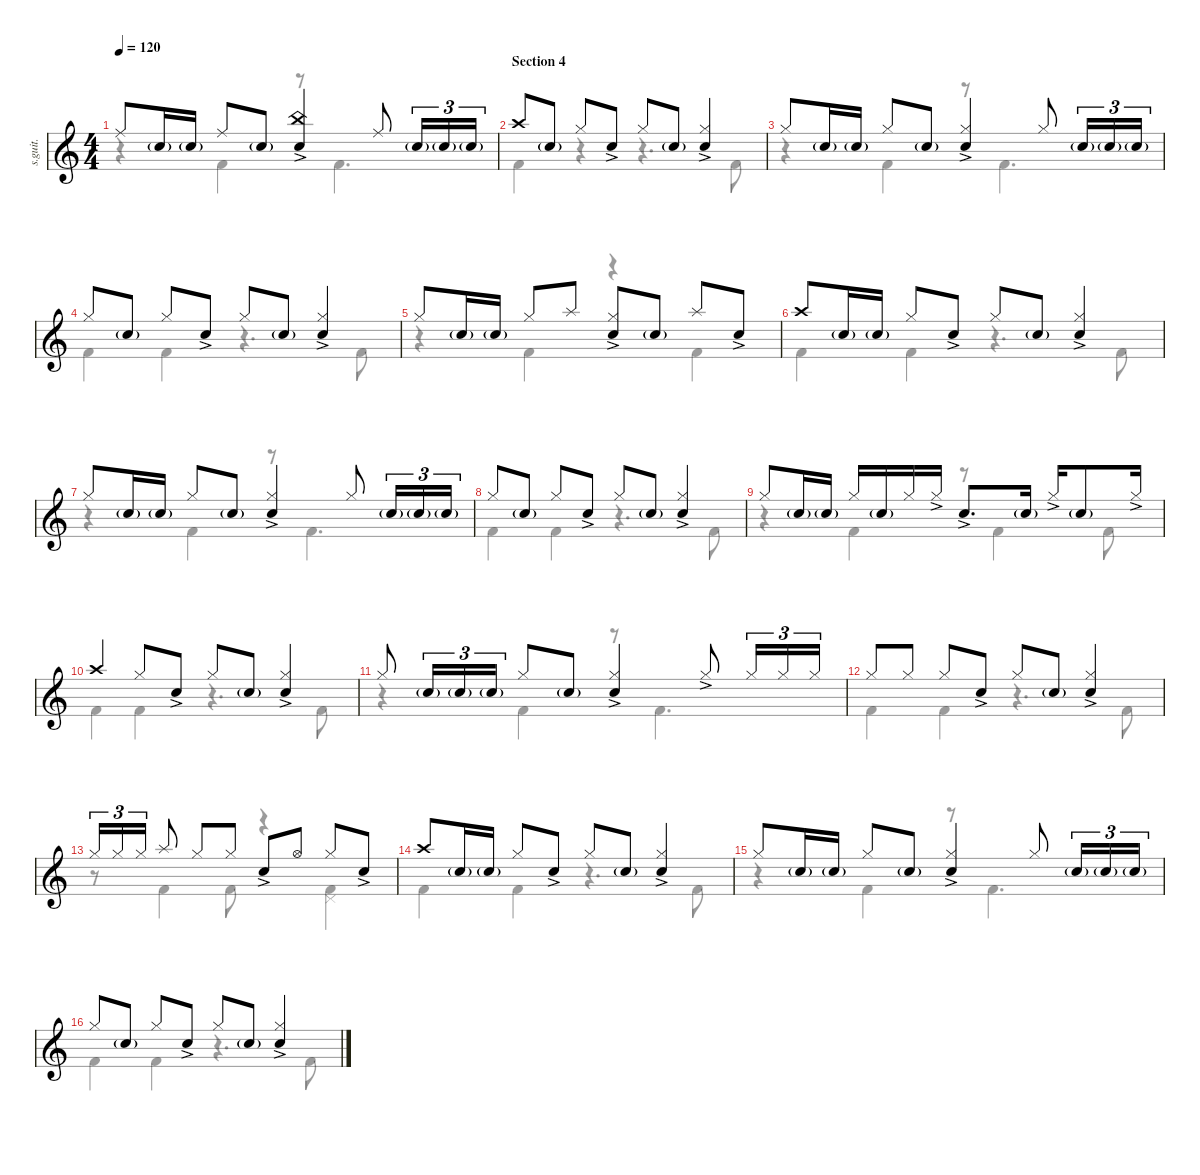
\defaultSystemsLayout 4
\hideDynamics
\bracketExtendMode nobrackets
\track ("Matt Halpern" "s.guit.") {instrument percussion}
\staff {score}
\articulation defaults
\voice
\ts (4 4)
\tempo 120
\clef g2
\ks c "Ride (middle)".8{lyrics (0 "") lyrics (1 "") lyrics (2 "") lyrics (3 "") lyrics (4 "") dy mf} "Snare (hit) 2"{g}.16{lyrics (0 "") lyrics (1 "") lyrics (2 "") lyrics (3 "") lyrics (4 "")} "Snare (hit) 2"{g}.16{lyrics (0 "") lyrics (1 "") lyrics (2 "") lyrics (3 "") lyrics (4 "")} "Ride (middle)".8{lyrics (0 "") lyrics (1 "") lyrics (2 "") lyrics (3 "") lyrics (4 "")} "Snare (hit) 2"{g}.8{lyrics (0 "") lyrics (1 "") lyrics (2 "") lyrics (3 "") lyrics (4 "")}
("Snare (hit) 2"{ac} "China (hit)").4{lyrics (0 "") lyrics (1 "") lyrics (2 "") lyrics (3 "") lyrics (4 "")} "Ride (middle)".8{lyrics (0 "") lyrics (1 "") lyrics (2 "") lyrics (3 "") lyrics (4 "")} "Snare (hit) 2"{g}.16{tu (3 2) lyrics (0 "") lyrics (1 "") lyrics (2 "") lyrics (3 "") lyrics (4 "")} "Snare (hit) 2"{g}.16{tu (3 2) lyrics (0 "") lyrics (1 "") lyrics (2 "") lyrics (3 "") lyrics (4 "")} "Snare (hit) 2"{g}.16{tu (3 2) lyrics (0 "") lyrics (1 "") lyrics (2 "") lyrics (3 "") lyrics (4 "")} |
\section ("" "Section 4")
"Crash high (hit)".8{lyrics (0 "") lyrics (1 "") lyrics (2 "") lyrics (3 "") lyrics (4 "")} "Snare (hit) 2"{g}.8{lyrics (0 "") lyrics (1 "") lyrics (2 "") lyrics (3 "") lyrics (4 "")} "Hi-Hat (closed)".8{lyrics (0 "") lyrics (1 "") lyrics (2 "") lyrics (3 "") lyrics (4 "")} "Snare (hit) 2"{ac}.8{lyrics (0 "") lyrics (1 "") lyrics (2 "") lyrics (3 "") lyrics (4 "")} "Hi-Hat (closed)".8{lyrics (0 "") lyrics (1 "") lyrics (2 "") lyrics (3 "") lyrics (4 "")} "Snare (hit) 2"{g}.8{lyrics (0 "") lyrics (1 "") lyrics (2 "") lyrics (3 "") lyrics (4 "")} ("Snare (hit) 2"{ac} "Hi-Hat (closed)").4{lyrics (0 "") lyrics (1 "") lyrics (2 "") lyrics (3 "") lyrics (4 "")} |
"Hi-Hat (closed)".8{lyrics (0 "") lyrics (1 "") lyrics (2 "") lyrics (3 "") lyrics (4 "")} "Snare (hit) 2"{g}.16{lyrics (0 "") lyrics (1 "") lyrics (2 "") lyrics (3 "") lyrics (4 "")} "Snare (hit) 2"{g}.16{lyrics (0 "") lyrics (1 "") lyrics (2 "") lyrics (3 "") lyrics (4 "")} "Hi-Hat (closed)".8{lyrics (0 "") lyrics (1 "") lyrics (2 "") lyrics (3 "") lyrics (4 "")} "Snare (hit) 2"{g}.8{lyrics (0 "") lyrics (1 "") lyrics (2 "") lyrics (3 "") lyrics (4 "")} ("Snare (hit) 2"{ac} "Hi-Hat (closed)").4{lyrics (0 "") lyrics (1 "") lyrics (2 "") lyrics (3 "") lyrics (4 "")} "Hi-Hat (closed)".8{lyrics (0 "") lyrics (1 "") lyrics (2 "") lyrics (3 "") lyrics (4 "")} "Snare (hit) 2"{g}.16{tu (3 2) lyrics (0 "") lyrics (1 "") lyrics (2 "") lyrics (3 "") lyrics (4 "")} "Snare (hit) 2"{g}.16{tu (3 2) lyrics (0 "") lyrics (1 "") lyrics (2 "") lyrics (3 "") lyrics (4 "")} "Snare (hit) 2"{g}.16{tu (3 2) lyrics (0 "") lyrics (1 "") lyrics (2 "") lyrics (3 "") lyrics (4 "")} |
"Hi-Hat (closed)".8{lyrics (0 "") lyrics (1 "") lyrics (2 "") lyrics (3 "") lyrics (4 "")} "Snare (hit) 2"{g}.8{lyrics (0 "") lyrics (1 "") lyrics (2 "") lyrics (3 "") lyrics (4 "")} "Hi-Hat (closed)".8{lyrics (0 "") lyrics (1 "") lyrics (2 "") lyrics (3 "") lyrics (4 "")} "Snare (hit) 2"{ac}.8{lyrics (0 "") lyrics (1 "") lyrics (2 "") lyrics (3 "") lyrics (4 "")} "Hi-Hat (closed)".8{lyrics (0 "") lyrics (1 "") lyrics (2 "") lyrics (3 "") lyrics (4 "")} "Snare (hit) 2"{g}.8{lyrics (0 "") lyrics (1 "") lyrics (2 "") lyrics (3 "") lyrics (4 "")} ("Snare (hit) 2"{ac} "Hi-Hat (closed)").4{lyrics (0 "") lyrics (1 "") lyrics (2 "") lyrics (3 "") lyrics (4 "")} |
"Hi-Hat (closed)".8{lyrics (0 "") lyrics (1 "") lyrics (2 "") lyrics (3 "") lyrics (4 "")} "Snare (hit) 2"{g}.16{lyrics (0 "") lyrics (1 "") lyrics (2 "") lyrics (3 "") lyrics (4 "")} "Snare (hit) 2"{g}.16{lyrics (0 "") lyrics (1 "") lyrics (2 "") lyrics (3 "") lyrics (4 "")} "Hi-Hat (closed)".8{lyrics (0 "") lyrics (1 "") lyrics (2 "") lyrics (3 "") lyrics (4 "")} "Splash (hit)".8{lyrics (0 "") lyrics (1 "") lyrics (2 "") lyrics (3 "") lyrics (4 "")} ("Snare (hit) 2"{ac} "Hi-Hat (closed)").8{lyrics (0 "") lyrics (1 "") lyrics (2 "") lyrics (3 "") lyrics (4 "")} "Snare (hit) 2"{g}.8{lyrics (0 "") lyrics (1 "") lyrics (2 "") lyrics (3 "") lyrics (4 "")} "Splash (hit)".8{lyrics (0 "") lyrics (1 "") lyrics (2 "") lyrics (3 "") lyrics (4 "")} "Snare (hit) 2"{ac}.8{lyrics (0 "") lyrics (1 "") lyrics (2 "") lyrics (3 "") lyrics (4 "")} |
"Crash high (hit)".8{lyrics (0 "") lyrics (1 "") lyrics (2 "") lyrics (3 "") lyrics (4 "")} "Snare (hit) 2"{g}.16{lyrics (0 "") lyrics (1 "") lyrics (2 "") lyrics (3 "") lyrics (4 "")} "Snare (hit) 2"{g}.16{lyrics (0 "") lyrics (1 "") lyrics (2 "") lyrics (3 "") lyrics (4 "")} "Hi-Hat (closed)".8{lyrics (0 "") lyrics (1 "") lyrics (2 "") lyrics (3 "") lyrics (4 "")} "Snare (hit) 2"{ac}.8{lyrics (0 "") lyrics (1 "") lyrics (2 "") lyrics (3 "") lyrics (4 "")} "Hi-Hat (closed)".8{lyrics (0 "") lyrics (1 "") lyrics (2 "") lyrics (3 "") lyrics (4 "")} "Snare (hit) 2"{g}.8{lyrics (0 "") lyrics (1 "") lyrics (2 "") lyrics (3 "") lyrics (4 "")} ("Snare (hit) 2"{ac} "Hi-Hat (closed)").4{lyrics (0 "") lyrics (1 "") lyrics (2 "") lyrics (3 "") lyrics (4 "")} |
"Hi-Hat (closed)".8{lyrics (0 "") lyrics (1 "") lyrics (2 "") lyrics (3 "") lyrics (4 "")} "Snare (hit) 2"{g}.16{lyrics (0 "") lyrics (1 "") lyrics (2 "") lyrics (3 "") lyrics (4 "")} "Snare (hit) 2"{g}.16{lyrics (0 "") lyrics (1 "") lyrics (2 "") lyrics (3 "") lyrics (4 "")} "Hi-Hat (closed)".8{lyrics (0 "") lyrics (1 "") lyrics (2 "") lyrics (3 "") lyrics (4 "")} "Snare (hit) 2"{g}.8{lyrics (0 "") lyrics (1 "") lyrics (2 "") lyrics (3 "") lyrics (4 "")} ("Snare (hit) 2"{ac} "Hi-Hat (closed)").4{lyrics (0 "") lyrics (1 "") lyrics (2 "") lyrics (3 "") lyrics (4 "")} "Hi-Hat (closed)".8{lyrics (0 "") lyrics (1 "") lyrics (2 "") lyrics (3 "") lyrics (4 "")} "Snare (hit) 2"{g}.16{tu (3 2) lyrics (0 "") lyrics (1 "") lyrics (2 "") lyrics (3 "") lyrics (4 "")} "Snare (hit) 2"{g}.16{tu (3 2) lyrics (0 "") lyrics (1 "") lyrics (2 "") lyrics (3 "") lyrics (4 "")} "Snare (hit) 2"{g}.16{tu (3 2) lyrics (0 "") lyrics (1 "") lyrics (2 "") lyrics (3 "") lyrics (4 "")} |
"Hi-Hat (closed)".8{lyrics (0 "") lyrics (1 "") lyrics (2 "") lyrics (3 "") lyrics (4 "")} "Snare (hit) 2"{g}.8{lyrics (0 "") lyrics (1 "") lyrics (2 "") lyrics (3 "") lyrics (4 "")} "Hi-Hat (closed)".8{lyrics (0 "") lyrics (1 "") lyrics (2 "") lyrics (3 "") lyrics (4 "")} "Snare (hit) 2"{ac}.8{lyrics (0 "") lyrics (1 "") lyrics (2 "") lyrics (3 "") lyrics (4 "")} "Hi-Hat (closed)".8{lyrics (0 "") lyrics (1 "") lyrics (2 "") lyrics (3 "") lyrics (4 "")} "Snare (hit) 2"{g}.8{lyrics (0 "") lyrics (1 "") lyrics (2 "") lyrics (3 "") lyrics (4 "")} ("Snare (hit) 2"{ac} "Hi-Hat (closed)").4{lyrics (0 "") lyrics (1 "") lyrics (2 "") lyrics (3 "") lyrics (4 "")} |
"Hi-Hat (closed)".8{lyrics (0 "") lyrics (1 "") lyrics (2 "") lyrics (3 "") lyrics (4 "")} "Snare (hit) 2"{g}.16{lyrics (0 "") lyrics (1 "") lyrics (2 "") lyrics (3 "") lyrics (4 "")} "Snare (hit) 2"{g}.16{lyrics (0 "") lyrics (1 "") lyrics (2 "") lyrics (3 "") lyrics (4 "")} "Hi-Hat (closed)".16{lyrics (0 "") lyrics (1 "") lyrics (2 "") lyrics (3 "") lyrics (4 "")} "Snare (hit) 2"{g}.16{lyrics (0 "") lyrics (1 "") lyrics (2 "") lyrics (3 "") lyrics (4 "")} "Hi-Hat (closed)".16{lyrics (0 "") lyrics (1 "") lyrics (2 "") lyrics (3 "") lyrics (4 "")} "Hi-Hat (closed)"{ac}.16{lyrics (0 "") lyrics (1 "") lyrics (2 "") lyrics (3 "") lyrics (4 "")} "Snare (hit) 2"{ac}.8{d lyrics (0 "") lyrics (1 "") lyrics (2 "") lyrics (3 "") lyrics (4 "")} "Snare (hit) 2"{g}.16{lyrics (0 "") lyrics (1 "") lyrics (2 "") lyrics (3 "") lyrics (4 "")} "Hi-Hat (closed)"{ac}.16{lyrics (0 "") lyrics (1 "") lyrics (2 "") lyrics (3 "") lyrics (4 "")} "Snare (hit) 2"{g}.8{lyrics (0 "") lyrics (1 "") lyrics (2 "") lyrics (3 "") lyrics (4 "")} "Hi-Hat (closed)"{ac}.16{lyrics (0 "") lyrics (1 "") lyrics (2 "") lyrics (3 "") lyrics (4 "")} |
"Crash high (hit)".4{lyrics (0 "") lyrics (1 "") lyrics (2 "") lyrics (3 "") lyrics (4 "")} "Hi-Hat (closed)".8{lyrics (0 "") lyrics (1 "") lyrics (2 "") lyrics (3 "") lyrics (4 "")} "Snare (hit) 2"{ac}.8{lyrics (0 "") lyrics (1 "") lyrics (2 "") lyrics (3 "") lyrics (4 "")} "Hi-Hat (closed)".8{lyrics (0 "") lyrics (1 "") lyrics (2 "") lyrics (3 "") lyrics (4 "")} "Snare (hit) 2"{g}.8{lyrics (0 "") lyrics (1 "") lyrics (2 "") lyrics (3 "") lyrics (4 "")} ("Snare (hit) 2"{ac} "Hi-Hat (closed)").4{lyrics (0 "") lyrics (1 "") lyrics (2 "") lyrics (3 "") lyrics (4 "")} |
"Hi-Hat (closed)".8{lyrics (0 "") lyrics (1 "") lyrics (2 "") lyrics (3 "") lyrics (4 "")} "Snare (hit) 2"{g}.16{tu (3 2) lyrics (0 "") lyrics (1 "") lyrics (2 "") lyrics (3 "") lyrics (4 "")} "Snare (hit) 2"{g}.16{tu (3 2) lyrics (0 "") lyrics (1 "") lyrics (2 "") lyrics (3 "") lyrics (4 "")} "Snare (hit) 2"{g}.16{tu (3 2) lyrics (0 "") lyrics (1 "") lyrics (2 "") lyrics (3 "") lyrics (4 "")} "Hi-Hat (closed)".8{lyrics (0 "") lyrics (1 "") lyrics (2 "") lyrics (3 "") lyrics (4 "")} "Snare (hit) 2"{g}.8{lyrics (0 "") lyrics (1 "") lyrics (2 "") lyrics (3 "") lyrics (4 "")} ("Snare (hit) 2"{ac} "Hi-Hat (closed)").4{lyrics (0 "") lyrics (1 "") lyrics (2 "") lyrics (3 "") lyrics (4 "")} "Hi-Hat (closed)"{ac}.8{lyrics (0 "") lyrics (1 "") lyrics (2 "") lyrics (3 "") lyrics (4 "")} "Hi-Hat (closed)".16{tu (3 2) lyrics (0 "") lyrics (1 "") lyrics (2 "") lyrics (3 "") lyrics (4 "")} "Hi-Hat (closed)".16{tu (3 2) lyrics (0 "") lyrics (1 "") lyrics (2 "") lyrics (3 "") lyrics (4 "")} "Hi-Hat (closed)".16{tu (3 2) lyrics (0 "") lyrics (1 "") lyrics (2 "") lyrics (3 "") lyrics (4 "")} |
"Hi-Hat (closed)".8{lyrics (0 "") lyrics (1 "") lyrics (2 "") lyrics (3 "") lyrics (4 "")} "Hi-Hat (closed)".8{lyrics (0 "") lyrics (1 "") lyrics (2 "") lyrics (3 "") lyrics (4 "")} "Hi-Hat (closed)".8{lyrics (0 "") lyrics (1 "") lyrics (2 "") lyrics (3 "") lyrics (4 "")} "Snare (hit) 2"{ac}.8{lyrics (0 "") lyrics (1 "") lyrics (2 "") lyrics (3 "") lyrics (4 "")} "Hi-Hat (closed)".8{lyrics (0 "") lyrics (1 "") lyrics (2 "") lyrics (3 "") lyrics (4 "")} "Snare (hit) 2"{g}.8{lyrics (0 "") lyrics (1 "") lyrics (2 "") lyrics (3 "") lyrics (4 "")} ("Snare (hit) 2"{ac} "Hi-Hat (closed)").4{lyrics (0 "") lyrics (1 "") lyrics (2 "") lyrics (3 "") lyrics (4 "")} |
"Hi-Hat (closed)".16{tu (3 2) lyrics (0 "") lyrics (1 "") lyrics (2 "") lyrics (3 "") lyrics (4 "")} "Hi-Hat (closed)".16{tu (3 2) lyrics (0 "") lyrics (1 "") lyrics (2 "") lyrics (3 "") lyrics (4 "")} "Hi-Hat (closed)".16{tu (3 2) lyrics (0 "") lyrics (1 "") lyrics (2 "") lyrics (3 "") lyrics (4 "")} "Splash (hit)".8{lyrics (0 "") lyrics (1 "") lyrics (2 "") lyrics (3 "") lyrics (4 "")} "Hi-Hat (closed)".8{lyrics (0 "") lyrics (1 "") lyrics (2 "") lyrics (3 "") lyrics (4 "")} "Hi-Hat (closed)".8{lyrics (0 "") lyrics (1 "") lyrics (2 "") lyrics (3 "") lyrics (4 "")} "Snare (hit) 2"{ac}.8{lyrics (0 "") lyrics (1 "") lyrics (2 "") lyrics (3 "") lyrics (4 "")} "Hi-Hat (open)".8{lyrics (0 "") lyrics (1 "") lyrics (2 "") lyrics (3 "") lyrics (4 "")} "Hi-Hat (closed)".8{lyrics (0 "") lyrics (1 "") lyrics (2 "") lyrics (3 "") lyrics (4 "")} "Snare (hit) 2"{ac}.8{lyrics (0 "") lyrics (1 "") lyrics (2 "") lyrics (3 "") lyrics (4 "")} |
"Crash high (hit)".8{lyrics (0 "") lyrics (1 "") lyrics (2 "") lyrics (3 "") lyrics (4 "")} "Snare (hit) 2"{g}.16{lyrics (0 "") lyrics (1 "") lyrics (2 "") lyrics (3 "") lyrics (4 "")} "Snare (hit) 2"{g}.16{lyrics (0 "") lyrics (1 "") lyrics (2 "") lyrics (3 "") lyrics (4 "")} "Hi-Hat (closed)".8{lyrics (0 "") lyrics (1 "") lyrics (2 "") lyrics (3 "") lyrics (4 "")} "Snare (hit) 2"{ac}.8{lyrics (0 "") lyrics (1 "") lyrics (2 "") lyrics (3 "") lyrics (4 "")} "Hi-Hat (closed)".8{lyrics (0 "") lyrics (1 "") lyrics (2 "") lyrics (3 "") lyrics (4 "")} "Snare (hit) 2"{g}.8{lyrics (0 "") lyrics (1 "") lyrics (2 "") lyrics (3 "") lyrics (4 "")} ("Snare (hit) 2"{ac} "Hi-Hat (closed)").4{lyrics (0 "") lyrics (1 "") lyrics (2 "") lyrics (3 "") lyrics (4 "")} |
"Hi-Hat (closed)".8{lyrics (0 "") lyrics (1 "") lyrics (2 "") lyrics (3 "") lyrics (4 "")} "Snare (hit) 2"{g}.16{lyrics (0 "") lyrics (1 "") lyrics (2 "") lyrics (3 "") lyrics (4 "")} "Snare (hit) 2"{g}.16{lyrics (0 "") lyrics (1 "") lyrics (2 "") lyrics (3 "") lyrics (4 "")} "Hi-Hat (closed)".8{lyrics (0 "") lyrics (1 "") lyrics (2 "") lyrics (3 "") lyrics (4 "")} "Snare (hit) 2"{g}.8{lyrics (0 "") lyrics (1 "") lyrics (2 "") lyrics (3 "") lyrics (4 "")} ("Hi-Hat (closed)" "Snare (hit) 2"{ac}).4{lyrics (0 "") lyrics (1 "") lyrics (2 "") lyrics (3 "") lyrics (4 "")} "Hi-Hat (closed)".8{lyrics (0 "") lyrics (1 "") lyrics (2 "") lyrics (3 "") lyrics (4 "")} "Snare (hit) 2"{g}.16{tu (3 2) lyrics (0 "") lyrics (1 "") lyrics (2 "") lyrics (3 "") lyrics (4 "")} "Snare (hit) 2"{g}.16{tu (3 2) lyrics (0 "") lyrics (1 "") lyrics (2 "") lyrics (3 "") lyrics (4 "")} "Snare (hit) 2"{g}.16{tu (3 2) lyrics (0 "") lyrics (1 "") lyrics (2 "") lyrics (3 "") lyrics (4 "")} |
"Hi-Hat (closed)".8{lyrics (0 "") lyrics (1 "") lyrics (2 "") lyrics (3 "") lyrics (4 "")} "Snare (hit) 2"{g}.8{lyrics (0 "") lyrics (1 "") lyrics (2 "") lyrics (3 "") lyrics (4 "")} "Hi-Hat (closed)".8{lyrics (0 "") lyrics (1 "") lyrics (2 "") lyrics (3 "") lyrics (4 "")} "Snare (hit) 2"{ac}.8{lyrics (0 "") lyrics (1 "") lyrics (2 "") lyrics (3 "") lyrics (4 "")} "Hi-Hat (closed)".8{lyrics (0 "") lyrics (1 "") lyrics (2 "") lyrics (3 "") lyrics (4 "")} "Snare (hit) 2"{g}.8{lyrics (0 "") lyrics (1 "") lyrics (2 "") lyrics (3 "") lyrics (4 "")} ("Snare (hit) 2"{ac} "Hi-Hat (closed)").4{lyrics (0 "") lyrics (1 "") lyrics (2 "") lyrics (3 "") lyrics (4 "")}
\voice
\clef g2
\ottava regular
\simile none
\ks c
r.4{dy mf} "Kick (hit) 2".4{lyrics (0 "") lyrics (1 "") lyrics (2 "") lyrics (3 "") lyrics (4 "")} r.8 "Kick (hit) 2".4{d lyrics (0 "") lyrics (1 "") lyrics (2 "") lyrics (3 "") lyrics (4 "")} |
"Kick (hit) 2".4{lyrics (0 "") lyrics (1 "") lyrics (2 "") lyrics (3 "") lyrics (4 "")} r.4 r.4{d} "Kick (hit) 2".8{lyrics (0 "") lyrics (1 "") lyrics (2 "") lyrics (3 "") lyrics (4 "")} |
r.4 "Kick (hit) 2".4{lyrics (0 "") lyrics (1 "") lyrics (2 "") lyrics (3 "") lyrics (4 "")} r.8 "Kick (hit) 2".4{d lyrics (0 "") lyrics (1 "") lyrics (2 "") lyrics (3 "") lyrics (4 "")} |
"Kick (hit) 2".4{lyrics (0 "") lyrics (1 "") lyrics (2 "") lyrics (3 "") lyrics (4 "")} "Kick (hit) 2".4{lyrics (0 "") lyrics (1 "") lyrics (2 "") lyrics (3 "") lyrics (4 "")} r.4{d} "Kick (hit) 2".8{lyrics (0 "") lyrics (1 "") lyrics (2 "") lyrics (3 "") lyrics (4 "")} |
r.4 "Kick (hit) 2".4{lyrics (0 "") lyrics (1 "") lyrics (2 "") lyrics (3 "") lyrics (4 "")} r.4 "Kick (hit) 2".4{lyrics (0 "") lyrics (1 "") lyrics (2 "") lyrics (3 "") lyrics (4 "")} |
"Kick (hit) 2".4{lyrics (0 "") lyrics (1 "") lyrics (2 "") lyrics (3 "") lyrics (4 "")} "Kick (hit) 2".4{lyrics (0 "") lyrics (1 "") lyrics (2 "") lyrics (3 "") lyrics (4 "")} r.4{d} "Kick (hit) 2".8{lyrics (0 "") lyrics (1 "") lyrics (2 "") lyrics (3 "") lyrics (4 "")} |
r.4 "Kick (hit) 2".4{lyrics (0 "") lyrics (1 "") lyrics (2 "") lyrics (3 "") lyrics (4 "")} r.8 "Kick (hit) 2".4{d lyrics (0 "") lyrics (1 "") lyrics (2 "") lyrics (3 "") lyrics (4 "")} |
"Kick (hit) 2".4{lyrics (0 "") lyrics (1 "") lyrics (2 "") lyrics (3 "") lyrics (4 "")} "Kick (hit) 2".4{lyrics (0 "") lyrics (1 "") lyrics (2 "") lyrics (3 "") lyrics (4 "")} r.4{d} "Kick (hit) 2".8{lyrics (0 "") lyrics (1 "") lyrics (2 "") lyrics (3 "") lyrics (4 "")} |
r.4 "Kick (hit) 2".4{lyrics (0 "") lyrics (1 "") lyrics (2 "") lyrics (3 "") lyrics (4 "")} r.8 "Kick (hit) 2".4{lyrics (0 "") lyrics (1 "") lyrics (2 "") lyrics (3 "") lyrics (4 "")} "Kick (hit) 2".8{lyrics (0 "") lyrics (1 "") lyrics (2 "") lyrics (3 "") lyrics (4 "")} |
"Kick (hit) 2".4{lyrics (0 "") lyrics (1 "") lyrics (2 "") lyrics (3 "") lyrics (4 "")} "Kick (hit) 2".4{lyrics (0 "") lyrics (1 "") lyrics (2 "") lyrics (3 "") lyrics (4 "")} r.4{d} "Kick (hit) 2".8{lyrics (0 "") lyrics (1 "") lyrics (2 "") lyrics (3 "") lyrics (4 "")} |
r.4 "Kick (hit) 2".4{lyrics (0 "") lyrics (1 "") lyrics (2 "") lyrics (3 "") lyrics (4 "")} r.8 "Kick (hit) 2".4{d lyrics (0 "") lyrics (1 "") lyrics (2 "") lyrics (3 "") lyrics (4 "")} |
"Kick (hit) 2".4{lyrics (0 "") lyrics (1 "") lyrics (2 "") lyrics (3 "") lyrics (4 "")} "Kick (hit) 2".4{lyrics (0 "") lyrics (1 "") lyrics (2 "") lyrics (3 "") lyrics (4 "")} r.4{d} "Kick (hit) 2".8{lyrics (0 "") lyrics (1 "") lyrics (2 "") lyrics (3 "") lyrics (4 "")} |
r.8 "Kick (hit) 2".4{lyrics (0 "") lyrics (1 "") lyrics (2 "") lyrics (3 "") lyrics (4 "")} "Kick (hit) 2".8{lyrics (0 "") lyrics (1 "") lyrics (2 "") lyrics (3 "") lyrics (4 "")} r.4 ("Kick (hit) 2" "Pedal Hi-Hat (hit)").4{lyrics (0 "") lyrics (1 "") lyrics (2 "") lyrics (3 "") lyrics (4 "")} |
"Kick (hit) 2".4{lyrics (0 "") lyrics (1 "") lyrics (2 "") lyrics (3 "") lyrics (4 "")} "Kick (hit) 2".4{lyrics (0 "") lyrics (1 "") lyrics (2 "") lyrics (3 "") lyrics (4 "")} r.4{d} "Kick (hit) 2".8{lyrics (0 "") lyrics (1 "") lyrics (2 "") lyrics (3 "") lyrics (4 "")} |
r.4 "Kick (hit) 2".4{lyrics (0 "") lyrics (1 "") lyrics (2 "") lyrics (3 "") lyrics (4 "")} r.8 "Kick (hit) 2".4{d lyrics (0 "") lyrics (1 "") lyrics (2 "") lyrics (3 "") lyrics (4 "")} |
"Kick (hit) 2".4{lyrics (0 "") lyrics (1 "") lyrics (2 "") lyrics (3 "") lyrics (4 "")} "Kick (hit) 2".4{lyrics (0 "") lyrics (1 "") lyrics (2 "") lyrics (3 "") lyrics (4 "")} r.4{d} "Kick (hit) 2".8{lyrics (0 "") lyrics (1 "") lyrics (2 "") lyrics (3 "") lyrics (4 "")}
